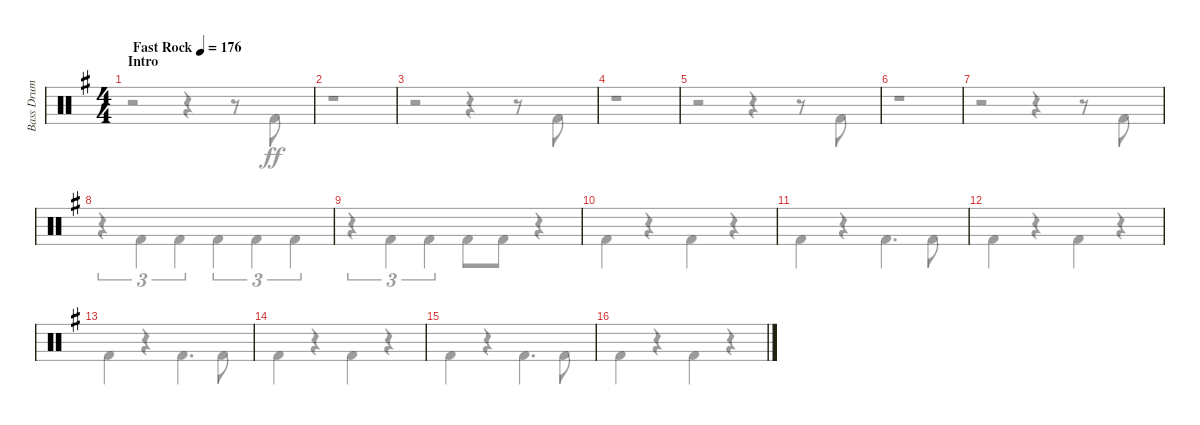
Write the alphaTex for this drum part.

\track ("Bass Drum" "Bass Drum") {instrument percussion}
\staff {score}
\articulation defaults
\voice
\ts (4 4)
\section ("" "Intro")
\tempo (176 "Fast Rock")
\clef neutral
\ks eminor
|
|
|
|
|
|
|
|
|
|
|
|
|
|
|
\voice
\clef neutral
\ks eminor
r.2{dy ff} r.4 r.8 "Kick (hit) 2".8 |
r.1 |
r.2 r.4 r.8 "Kick (hit) 2".8 |
r.1 |
r.2 r.4 r.8 "Kick (hit) 2".8 |
r.1 |
r.2 r.4 r.8 "Kick (hit) 2".8 |
r.4{tu (3 2)} "Kick (hit) 2".4{tu (3 2)} "Kick (hit) 2".4{tu (3 2)} "Kick (hit) 2".4{tu (3 2)} "Kick (hit) 2".4{tu (3 2)} "Kick (hit) 2".4{tu (3 2)} |
r.4{tu (3 2)} "Kick (hit) 2".4{tu (3 2)} "Kick (hit) 2".4{tu (3 2)} "Kick (hit) 2".8 "Kick (hit) 2".8 r.4 |
"Kick (hit) 2".4 r.4 "Kick (hit) 2".4 r.4 |
"Kick (hit) 2".4 r.4 "Kick (hit) 2".4{d} "Kick (hit) 2".8 |
"Kick (hit) 2".4 r.4 "Kick (hit) 2".4 r.4 |
"Kick (hit) 2".4 r.4 "Kick (hit) 2".4{d} "Kick (hit) 2".8 |
"Kick (hit) 2".4 r.4 "Kick (hit) 2".4 r.4 |
"Kick (hit) 2".4 r.4 "Kick (hit) 2".4{d} "Kick (hit) 2".8 |
"Kick (hit) 2".4 r.4 "Kick (hit) 2".4 r.4
